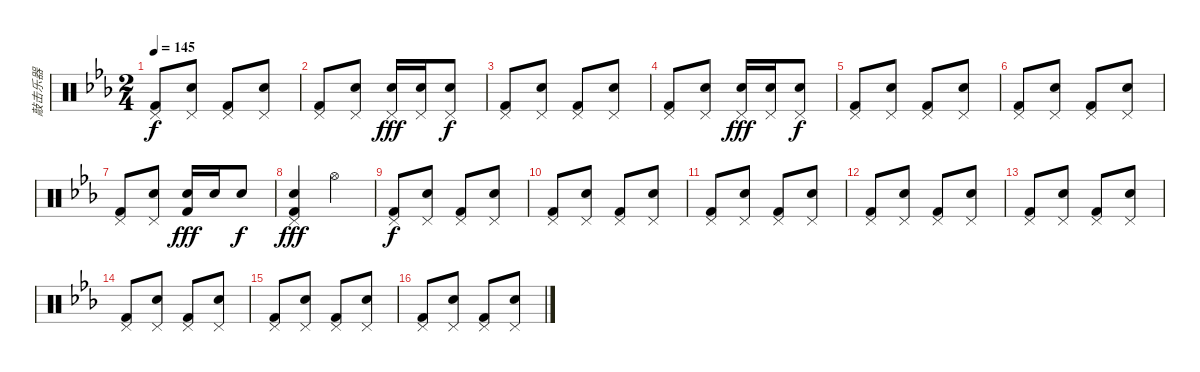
\track ("敲击乐器" "敲击乐器") {instrument percussion}
\staff {score}
\articulation defaults
\ts (2 4)
\tempo 145
\clef neutral
\ks eb
("Pedal Hi-Hat (hit)" "Kick (hit) 2").8{dy f} ("Pedal Hi-Hat (hit)" "Snare (hit) 2").8 ("Pedal Hi-Hat (hit)" "Kick (hit) 2").8 ("Pedal Hi-Hat (hit)" "Snare (hit) 2").8 |
("Pedal Hi-Hat (hit)" "Kick (hit) 2").8 ("Pedal Hi-Hat (hit)" "Snare (hit) 2").8 ("Pedal Hi-Hat (hit)" "Hand Clap (hit)").16{dy fff} ("Pedal Hi-Hat (hit)" "Hand Clap (hit)").16 ("Pedal Hi-Hat (hit)" "Snare (hit) 2").8{dy f} |
("Pedal Hi-Hat (hit)" "Kick (hit) 2").8 ("Pedal Hi-Hat (hit)" "Snare (hit) 2").8 ("Pedal Hi-Hat (hit)" "Kick (hit) 2").8 ("Pedal Hi-Hat (hit)" "Snare (hit) 2").8 |
("Pedal Hi-Hat (hit)" "Kick (hit) 2").8 ("Pedal Hi-Hat (hit)" "Snare (hit) 2").8 ("Pedal Hi-Hat (hit)" "Hand Clap (hit)").16{dy fff} ("Pedal Hi-Hat (hit)" "Hand Clap (hit)").16 ("Pedal Hi-Hat (hit)" "Snare (hit) 2").8{dy f} |
("Pedal Hi-Hat (hit)" "Kick (hit) 2").8 ("Pedal Hi-Hat (hit)" "Snare (hit) 2").8 ("Pedal Hi-Hat (hit)" "Kick (hit) 2").8 ("Pedal Hi-Hat (hit)" "Snare (hit) 2").8 |
("Pedal Hi-Hat (hit)" "Kick (hit) 2").8 ("Pedal Hi-Hat (hit)" "Snare (hit) 2").8 ("Pedal Hi-Hat (hit)" "Kick (hit) 2").8 ("Pedal Hi-Hat (hit)" "Snare (hit) 2").8 |
("Pedal Hi-Hat (hit)" "Kick (hit) 2").8 ("Pedal Hi-Hat (hit)" "Snare (hit) 2").8 ("Snare (hit) 2" "Kick (hit) 2").16{dy fff} "Snare (hit) 2".16 "Snare (hit) 2".8{dy f} |
("Pedal Hi-Hat (hit)" "Snare (hit) 2" "Kick (hit) 2").4{dy fff} "Hi-Hat (open)".4 |
("Pedal Hi-Hat (hit)" "Kick (hit) 2").8{dy f} ("Pedal Hi-Hat (hit)" "Snare (hit) 2").8 ("Pedal Hi-Hat (hit)" "Kick (hit) 2").8 ("Pedal Hi-Hat (hit)" "Snare (hit) 2").8 |
("Pedal Hi-Hat (hit)" "Kick (hit) 2").8 ("Pedal Hi-Hat (hit)" "Snare (hit) 2").8 ("Pedal Hi-Hat (hit)" "Kick (hit) 2").8 ("Pedal Hi-Hat (hit)" "Snare (hit) 2").8 |
("Pedal Hi-Hat (hit)" "Kick (hit) 2").8 ("Pedal Hi-Hat (hit)" "Snare (hit) 2").8 ("Pedal Hi-Hat (hit)" "Kick (hit) 2").8 ("Pedal Hi-Hat (hit)" "Snare (hit) 2").8 |
("Pedal Hi-Hat (hit)" "Kick (hit) 2").8 ("Pedal Hi-Hat (hit)" "Snare (hit) 2").8 ("Pedal Hi-Hat (hit)" "Kick (hit) 2").8 ("Pedal Hi-Hat (hit)" "Snare (hit) 2").8 |
("Pedal Hi-Hat (hit)" "Kick (hit) 2").8 ("Pedal Hi-Hat (hit)" "Snare (hit) 2").8 ("Pedal Hi-Hat (hit)" "Kick (hit) 2").8 ("Pedal Hi-Hat (hit)" "Snare (hit) 2").8 |
("Pedal Hi-Hat (hit)" "Kick (hit) 2").8 ("Pedal Hi-Hat (hit)" "Snare (hit) 2").8 ("Pedal Hi-Hat (hit)" "Kick (hit) 2").8 ("Pedal Hi-Hat (hit)" "Snare (hit) 2").8 |
("Pedal Hi-Hat (hit)" "Kick (hit) 2").8 ("Pedal Hi-Hat (hit)" "Snare (hit) 2").8 ("Pedal Hi-Hat (hit)" "Kick (hit) 2").8 ("Pedal Hi-Hat (hit)" "Snare (hit) 2").8 |
("Pedal Hi-Hat (hit)" "Kick (hit) 2").8 ("Pedal Hi-Hat (hit)" "Snare (hit) 2").8 ("Pedal Hi-Hat (hit)" "Kick (hit) 2").8 ("Pedal Hi-Hat (hit)" "Snare (hit) 2").8
